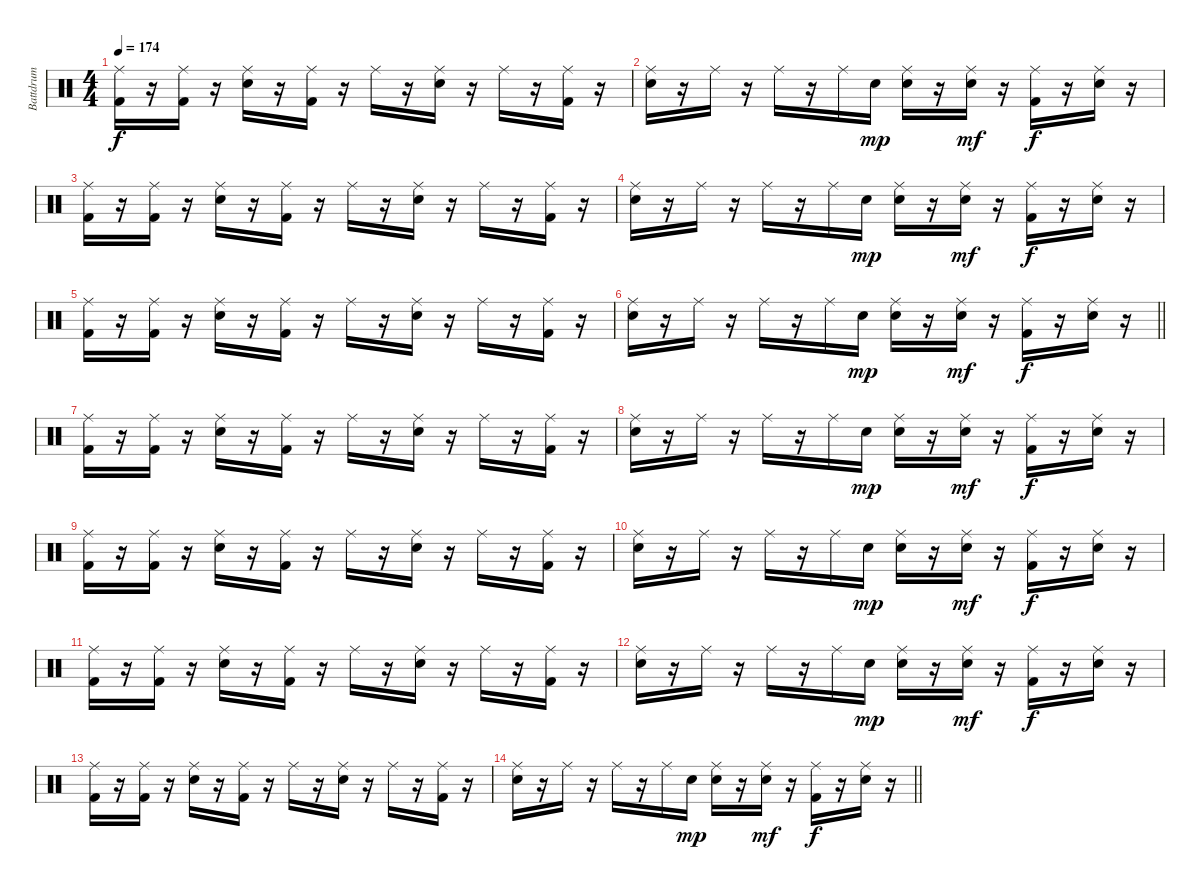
\track ("Battdrum" "Battdrum") {instrument percussion}
\staff {score}
\articulation defaults
\ts (4 4)
\tempo 174
\clef neutral
\ks c
("Kick (hit) 2" "Ride (middle)").16{dy f} r.16 ("Kick (hit) 2" "Ride (middle)").16 r.16 ("Snare (hit) 2" "Ride (middle)").16 r.16 ("Kick (hit) 2" "Ride (middle)").16 r.16 "Ride (middle)".16 r.16 ("Snare (hit) 2" "Ride (middle)").16 r.16 "Ride (middle)".16 r.16 ("Kick (hit) 2" "Ride (middle)").16 r.16 |
("Snare (hit) 2" "Ride (middle)").16 r.16 "Ride (middle)".16 r.16 "Ride (middle)".16 r.16 "Ride (middle)".16 "Snare (hit) 2".16{dy mp} ("Snare (hit) 2" "Ride (middle)").16 r.16 ("Snare (hit) 2" "Ride (middle)").16{dy mf} r.16 ("Kick (hit) 2" "Ride (middle)").16{dy f} r.16 ("Snare (hit) 2" "Ride (middle)").16 r.16 |
("Kick (hit) 2" "Ride (middle)").16 r.16 ("Kick (hit) 2" "Ride (middle)").16 r.16 ("Snare (hit) 2" "Ride (middle)").16 r.16 ("Kick (hit) 2" "Ride (middle)").16 r.16 "Ride (middle)".16 r.16 ("Snare (hit) 2" "Ride (middle)").16 r.16 "Ride (middle)".16 r.16 ("Kick (hit) 2" "Ride (middle)").16 r.16 |
("Snare (hit) 2" "Ride (middle)").16 r.16 "Ride (middle)".16 r.16 "Ride (middle)".16 r.16 "Ride (middle)".16 "Snare (hit) 2".16{dy mp} ("Snare (hit) 2" "Ride (middle)").16 r.16 ("Snare (hit) 2" "Ride (middle)").16{dy mf} r.16 ("Kick (hit) 2" "Ride (middle)").16{dy f} r.16 ("Snare (hit) 2" "Ride (middle)").16 r.16 |
("Kick (hit) 2" "Ride (middle)").16 r.16 ("Kick (hit) 2" "Ride (middle)").16 r.16 ("Snare (hit) 2" "Ride (middle)").16 r.16 ("Kick (hit) 2" "Ride (middle)").16 r.16 "Ride (middle)".16 r.16 ("Snare (hit) 2" "Ride (middle)").16 r.16 "Ride (middle)".16 r.16 ("Kick (hit) 2" "Ride (middle)").16 r.16 |
\barLineRight lightlight
("Snare (hit) 2" "Ride (middle)").16 r.16 "Ride (middle)".16 r.16 "Ride (middle)".16 r.16 "Ride (middle)".16 "Snare (hit) 2".16{dy mp} ("Snare (hit) 2" "Ride (middle)").16 r.16 ("Snare (hit) 2" "Ride (middle)").16{dy mf} r.16 ("Kick (hit) 2" "Ride (middle)").16{dy f} r.16 ("Snare (hit) 2" "Ride (middle)").16 r.16 |
("Kick (hit) 2" "Ride (middle)").16 r.16 ("Kick (hit) 2" "Ride (middle)").16 r.16 ("Snare (hit) 2" "Ride (middle)").16 r.16 ("Kick (hit) 2" "Ride (middle)").16 r.16 "Ride (middle)".16 r.16 ("Snare (hit) 2" "Ride (middle)").16 r.16 "Ride (middle)".16 r.16 ("Kick (hit) 2" "Ride (middle)").16 r.16 |
("Snare (hit) 2" "Ride (middle)").16 r.16 "Ride (middle)".16 r.16 "Ride (middle)".16 r.16 "Ride (middle)".16 "Snare (hit) 2".16{dy mp} ("Snare (hit) 2" "Ride (middle)").16 r.16 ("Snare (hit) 2" "Ride (middle)").16{dy mf} r.16 ("Kick (hit) 2" "Ride (middle)").16{dy f} r.16 ("Snare (hit) 2" "Ride (middle)").16 r.16 |
("Kick (hit) 2" "Ride (middle)").16 r.16 ("Kick (hit) 2" "Ride (middle)").16 r.16 ("Snare (hit) 2" "Ride (middle)").16 r.16 ("Kick (hit) 2" "Ride (middle)").16 r.16 "Ride (middle)".16 r.16 ("Snare (hit) 2" "Ride (middle)").16 r.16 "Ride (middle)".16 r.16 ("Kick (hit) 2" "Ride (middle)").16 r.16 |
("Snare (hit) 2" "Ride (middle)").16 r.16 "Ride (middle)".16 r.16 "Ride (middle)".16 r.16 "Ride (middle)".16 "Snare (hit) 2".16{dy mp} ("Snare (hit) 2" "Ride (middle)").16 r.16 ("Snare (hit) 2" "Ride (middle)").16{dy mf} r.16 ("Kick (hit) 2" "Ride (middle)").16{dy f} r.16 ("Snare (hit) 2" "Ride (middle)").16 r.16 |
("Kick (hit) 2" "Ride (middle)").16 r.16 ("Kick (hit) 2" "Ride (middle)").16 r.16 ("Snare (hit) 2" "Ride (middle)").16 r.16 ("Kick (hit) 2" "Ride (middle)").16 r.16 "Ride (middle)".16 r.16 ("Snare (hit) 2" "Ride (middle)").16 r.16 "Ride (middle)".16 r.16 ("Kick (hit) 2" "Ride (middle)").16 r.16 |
("Snare (hit) 2" "Ride (middle)").16 r.16 "Ride (middle)".16 r.16 "Ride (middle)".16 r.16 "Ride (middle)".16 "Snare (hit) 2".16{dy mp} ("Snare (hit) 2" "Ride (middle)").16 r.16 ("Snare (hit) 2" "Ride (middle)").16{dy mf} r.16 ("Kick (hit) 2" "Ride (middle)").16{dy f} r.16 ("Snare (hit) 2" "Ride (middle)").16 r.16 |
("Kick (hit) 2" "Ride (middle)").16 r.16 ("Kick (hit) 2" "Ride (middle)").16 r.16 ("Snare (hit) 2" "Ride (middle)").16 r.16 ("Kick (hit) 2" "Ride (middle)").16 r.16 "Ride (middle)".16 r.16 ("Snare (hit) 2" "Ride (middle)").16 r.16 "Ride (middle)".16 r.16 ("Kick (hit) 2" "Ride (middle)").16 r.16 |
\barLineRight lightlight
("Snare (hit) 2" "Ride (middle)").16 r.16 "Ride (middle)".16 r.16 "Ride (middle)".16 r.16 "Ride (middle)".16 "Snare (hit) 2".16{dy mp} ("Snare (hit) 2" "Ride (middle)").16 r.16 ("Snare (hit) 2" "Ride (middle)").16{dy mf} r.16 ("Kick (hit) 2" "Ride (middle)").16{dy f} r.16 ("Snare (hit) 2" "Ride (middle)").16 r.16
